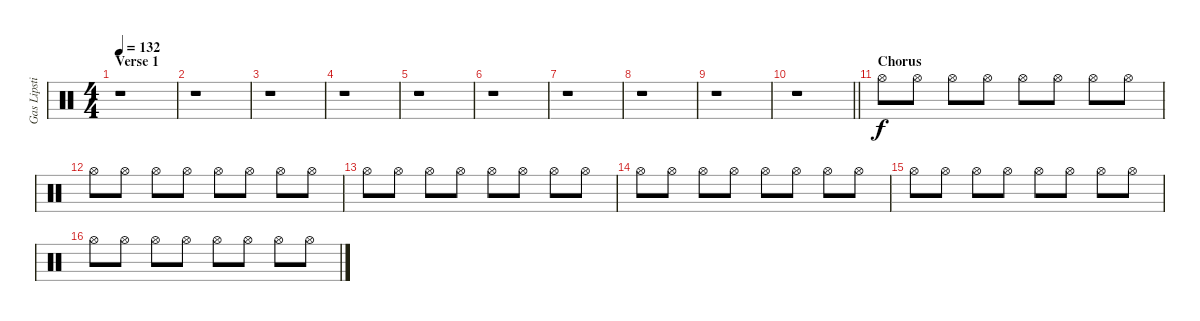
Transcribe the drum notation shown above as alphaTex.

\track ("Gas Lipstick (Drums)" "Gas Lipsti") {instrument percussion}
\staff {score}
\articulation defaults
\ts (4 4)
\section ("" "Verse 1")
\tempo 132
\clef neutral
\ks c
r.1{dy f} |
r.1 |
r.1 |
r.1 |
r.1 |
r.1 |
r.1 |
r.1 |
r.1 |
\barLineRight lightlight
r.1 |
\section ("" "Chorus")
"Hi-Hat (open)".8 "Hi-Hat (open)".8 "Hi-Hat (open)".8 "Hi-Hat (open)".8 "Hi-Hat (open)".8 "Hi-Hat (open)".8 "Hi-Hat (open)".8 "Hi-Hat (open)".8 |
"Hi-Hat (open)".8 "Hi-Hat (open)".8 "Hi-Hat (open)".8 "Hi-Hat (open)".8 "Hi-Hat (open)".8 "Hi-Hat (open)".8 "Hi-Hat (open)".8 "Hi-Hat (open)".8 |
"Hi-Hat (open)".8 "Hi-Hat (open)".8 "Hi-Hat (open)".8 "Hi-Hat (open)".8 "Hi-Hat (open)".8 "Hi-Hat (open)".8 "Hi-Hat (open)".8 "Hi-Hat (open)".8 |
"Hi-Hat (open)".8 "Hi-Hat (open)".8 "Hi-Hat (open)".8 "Hi-Hat (open)".8 "Hi-Hat (open)".8 "Hi-Hat (open)".8 "Hi-Hat (open)".8 "Hi-Hat (open)".8 |
"Hi-Hat (open)".8 "Hi-Hat (open)".8 "Hi-Hat (open)".8 "Hi-Hat (open)".8 "Hi-Hat (open)".8 "Hi-Hat (open)".8 "Hi-Hat (open)".8 "Hi-Hat (open)".8 |
"Hi-Hat (open)".8 "Hi-Hat (open)".8 "Hi-Hat (open)".8 "Hi-Hat (open)".8 "Hi-Hat (open)".8 "Hi-Hat (open)".8 "Hi-Hat (open)".8 "Hi-Hat (open)".8
